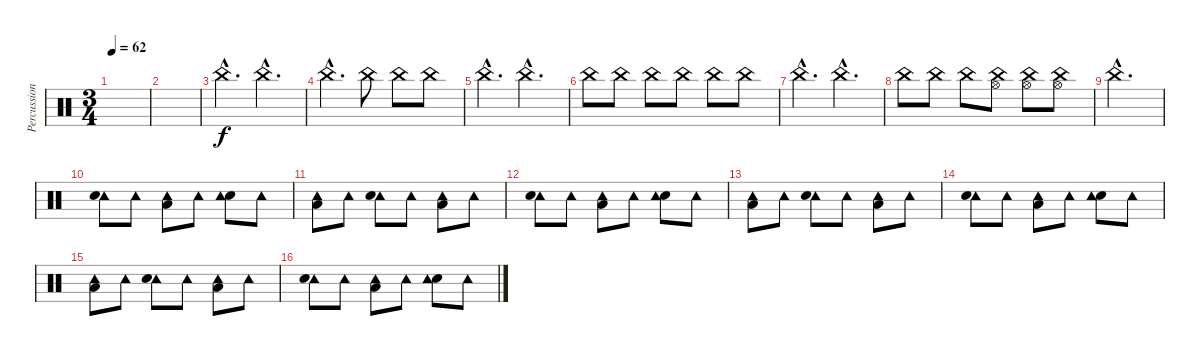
\track ("Percussions" "Percussion") {instrument percussion}
\staff {score}
\articulation defaults
\ts (3 4)
\tempo 62
\clef neutral
\ks c
|
|
"China (hit)"{hac}.4{d} "China (hit)"{hac}.4{d} |
"China (hit)"{hac}.4{d} "China (hit)".8 "China (hit)".8 "China (hit)".8 |
"China (hit)"{hac}.4{d} "China (hit)"{hac}.4{d} |
"China (hit)".8 "China (hit)".8 "China (hit)".8 "China (hit)".8 "China (hit)".8 "China (hit)".8 |
"China (hit)"{hac}.4{d} "China (hit)"{hac}.4{d} |
"China (hit)".8 "China (hit)".8 "China (hit)".8 ("China (hit)" "Hi-Hat (open)").8 ("China (hit)" "Hi-Hat (open)").8 ("China (hit)" "Hi-Hat (open)").8 |
"China (hit)"{hac}.2{d} |
("Tambourine (hit)" "Snare (hit) 2").8 "Tambourine (hit)".8 ("Tambourine (hit)" "Low Tom (hit)").8 "Tambourine (hit)".8 ("Snare (hit) 2" "Tambourine (hit)").8 "Tambourine (hit)".8 |
("Tambourine (hit)" "Low Tom (hit)").8 "Tambourine (hit)".8 ("Tambourine (hit)" "Snare (hit) 2").8 "Tambourine (hit)".8 ("Tambourine (hit)" "Low Tom (hit)").8 "Tambourine (hit)".8 |
("Tambourine (hit)" "Snare (hit) 2").8 "Tambourine (hit)".8 ("Tambourine (hit)" "Low Tom (hit)").8 "Tambourine (hit)".8 ("Snare (hit) 2" "Tambourine (hit)").8 "Tambourine (hit)".8 |
("Tambourine (hit)" "Low Tom (hit)").8 "Tambourine (hit)".8 ("Tambourine (hit)" "Snare (hit) 2").8 "Tambourine (hit)".8 ("Tambourine (hit)" "Low Tom (hit)").8 "Tambourine (hit)".8 |
("Tambourine (hit)" "Snare (hit) 2").8 "Tambourine (hit)".8 ("Tambourine (hit)" "Low Tom (hit)").8 "Tambourine (hit)".8 ("Snare (hit) 2" "Tambourine (hit)").8 "Tambourine (hit)".8 |
("Tambourine (hit)" "Low Tom (hit)").8 "Tambourine (hit)".8 ("Tambourine (hit)" "Snare (hit) 2").8 "Tambourine (hit)".8 ("Tambourine (hit)" "Low Tom (hit)").8 "Tambourine (hit)".8 |
("Tambourine (hit)" "Snare (hit) 2").8 "Tambourine (hit)".8 ("Tambourine (hit)" "Low Tom (hit)").8 "Tambourine (hit)".8 ("Snare (hit) 2" "Tambourine (hit)").8 "Tambourine (hit)".8
